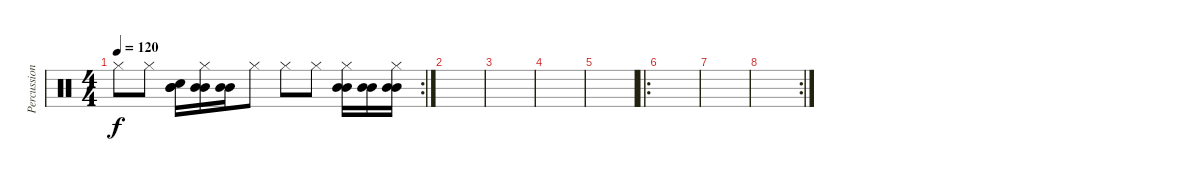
\track ("Percussions" "Percussion") {instrument percussion}
\staff {score}
\articulation defaults
\rc 2
\ts (4 4)
\tempo 120
\clef neutral
\ks c "Hi-Hat (closed)".8{dy f} "Hi-Hat (closed)".8
("Mid Tom (hit)" "Snare (hit) 2" "Mid Tom (hit)").16 ("Mid Tom (hit)" "Mid Tom (hit)" "Hi-Hat (closed)").16 ("Mid Tom (hit)" "Mid Tom (hit)").16 "Hi-Hat (closed)".8 "Hi-Hat (closed)".8 "Hi-Hat (closed)".8 ("Mid Tom (hit)" "Mid Tom (hit)" "Hi-Hat (closed)").16 ("Mid Tom (hit)" "Mid Tom (hit)").16 ("Mid Tom (hit)" "Mid Tom (hit)" "Hi-Hat (closed)").16 |
|
|
|
|
\ro
|
|
\rc 2
